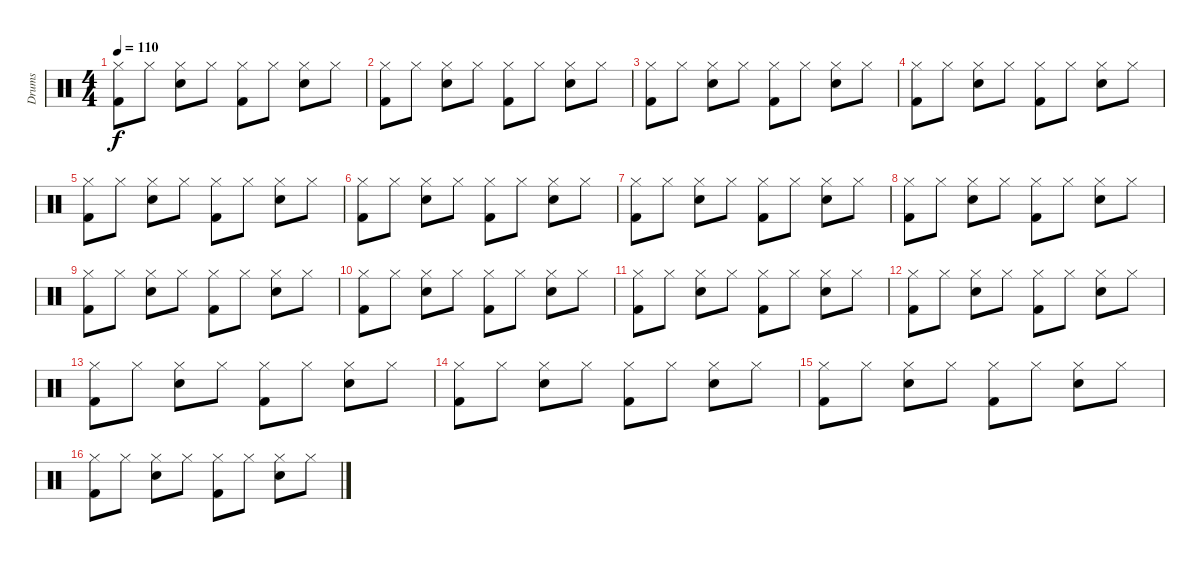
\track ("Drums" "Drums") {instrument percussion}
\staff {score}
\articulation defaults
\ts (4 4)
\tempo 110
\clef neutral
\ks c
("Hi-Hat (closed)" "Kick (hit) 2").8{dy f} "Hi-Hat (closed)".8 ("Hi-Hat (closed)" "Snare (hit) 2").8 "Hi-Hat (closed)".8 ("Hi-Hat (closed)" "Kick (hit) 2").8 "Hi-Hat (closed)".8 ("Hi-Hat (closed)" "Snare (hit) 2").8 "Hi-Hat (closed)".8 |
("Hi-Hat (closed)" "Kick (hit) 2").8 "Hi-Hat (closed)".8 ("Hi-Hat (closed)" "Snare (hit) 2").8 "Hi-Hat (closed)".8 ("Hi-Hat (closed)" "Kick (hit) 2").8 "Hi-Hat (closed)".8 ("Hi-Hat (closed)" "Snare (hit) 2").8 "Hi-Hat (closed)".8 |
("Hi-Hat (closed)" "Kick (hit) 2").8 "Hi-Hat (closed)".8 ("Hi-Hat (closed)" "Snare (hit) 2").8 "Hi-Hat (closed)".8 ("Hi-Hat (closed)" "Kick (hit) 2").8 "Hi-Hat (closed)".8 ("Hi-Hat (closed)" "Snare (hit) 2").8 "Hi-Hat (closed)".8 |
("Hi-Hat (closed)" "Kick (hit) 2").8 "Hi-Hat (closed)".8 ("Hi-Hat (closed)" "Snare (hit) 2").8 "Hi-Hat (closed)".8 ("Hi-Hat (closed)" "Kick (hit) 2").8 "Hi-Hat (closed)".8 ("Hi-Hat (closed)" "Snare (hit) 2").8 "Hi-Hat (closed)".8 |
("Hi-Hat (closed)" "Kick (hit) 2").8 "Hi-Hat (closed)".8 ("Hi-Hat (closed)" "Snare (hit) 2").8 "Hi-Hat (closed)".8 ("Hi-Hat (closed)" "Kick (hit) 2").8 "Hi-Hat (closed)".8 ("Hi-Hat (closed)" "Snare (hit) 2").8 "Hi-Hat (closed)".8 |
("Hi-Hat (closed)" "Kick (hit) 2").8 "Hi-Hat (closed)".8 ("Hi-Hat (closed)" "Snare (hit) 2").8 "Hi-Hat (closed)".8 ("Hi-Hat (closed)" "Kick (hit) 2").8 "Hi-Hat (closed)".8 ("Hi-Hat (closed)" "Snare (hit) 2").8 "Hi-Hat (closed)".8 |
("Hi-Hat (closed)" "Kick (hit) 2").8 "Hi-Hat (closed)".8 ("Hi-Hat (closed)" "Snare (hit) 2").8 "Hi-Hat (closed)".8 ("Hi-Hat (closed)" "Kick (hit) 2").8 "Hi-Hat (closed)".8 ("Hi-Hat (closed)" "Snare (hit) 2").8 "Hi-Hat (closed)".8 |
("Hi-Hat (closed)" "Kick (hit) 2").8 "Hi-Hat (closed)".8 ("Hi-Hat (closed)" "Snare (hit) 2").8 "Hi-Hat (closed)".8 ("Hi-Hat (closed)" "Kick (hit) 2").8 "Hi-Hat (closed)".8 ("Hi-Hat (closed)" "Snare (hit) 2").8 "Hi-Hat (closed)".8 |
("Hi-Hat (closed)" "Kick (hit) 2").8 "Hi-Hat (closed)".8 ("Hi-Hat (closed)" "Snare (hit) 2").8 "Hi-Hat (closed)".8 ("Hi-Hat (closed)" "Kick (hit) 2").8 "Hi-Hat (closed)".8 ("Hi-Hat (closed)" "Snare (hit) 2").8 "Hi-Hat (closed)".8 |
("Hi-Hat (closed)" "Kick (hit) 2").8 "Hi-Hat (closed)".8 ("Hi-Hat (closed)" "Snare (hit) 2").8 "Hi-Hat (closed)".8 ("Hi-Hat (closed)" "Kick (hit) 2").8 "Hi-Hat (closed)".8 ("Hi-Hat (closed)" "Snare (hit) 2").8 "Hi-Hat (closed)".8 |
("Hi-Hat (closed)" "Kick (hit) 2").8 "Hi-Hat (closed)".8 ("Hi-Hat (closed)" "Snare (hit) 2").8 "Hi-Hat (closed)".8 ("Hi-Hat (closed)" "Kick (hit) 2").8 "Hi-Hat (closed)".8 ("Hi-Hat (closed)" "Snare (hit) 2").8 "Hi-Hat (closed)".8 |
("Hi-Hat (closed)" "Kick (hit) 2").8 "Hi-Hat (closed)".8 ("Hi-Hat (closed)" "Snare (hit) 2").8 "Hi-Hat (closed)".8 ("Hi-Hat (closed)" "Kick (hit) 2").8 "Hi-Hat (closed)".8 ("Hi-Hat (closed)" "Snare (hit) 2").8 "Hi-Hat (closed)".8 |
("Hi-Hat (closed)" "Kick (hit) 2").8 "Hi-Hat (closed)".8 ("Hi-Hat (closed)" "Snare (hit) 2").8 "Hi-Hat (closed)".8 ("Hi-Hat (closed)" "Kick (hit) 2").8 "Hi-Hat (closed)".8 ("Hi-Hat (closed)" "Snare (hit) 2").8 "Hi-Hat (closed)".8 |
("Hi-Hat (closed)" "Kick (hit) 2").8 "Hi-Hat (closed)".8 ("Hi-Hat (closed)" "Snare (hit) 2").8 "Hi-Hat (closed)".8 ("Hi-Hat (closed)" "Kick (hit) 2").8 "Hi-Hat (closed)".8 ("Hi-Hat (closed)" "Snare (hit) 2").8 "Hi-Hat (closed)".8 |
("Hi-Hat (closed)" "Kick (hit) 2").8 "Hi-Hat (closed)".8 ("Hi-Hat (closed)" "Snare (hit) 2").8 "Hi-Hat (closed)".8 ("Hi-Hat (closed)" "Kick (hit) 2").8 "Hi-Hat (closed)".8 ("Hi-Hat (closed)" "Snare (hit) 2").8 "Hi-Hat (closed)".8 |
("Hi-Hat (closed)" "Kick (hit) 2").8 "Hi-Hat (closed)".8 ("Hi-Hat (closed)" "Snare (hit) 2").8 "Hi-Hat (closed)".8 ("Hi-Hat (closed)" "Kick (hit) 2").8 "Hi-Hat (closed)".8 ("Hi-Hat (closed)" "Snare (hit) 2").8 "Hi-Hat (closed)".8
